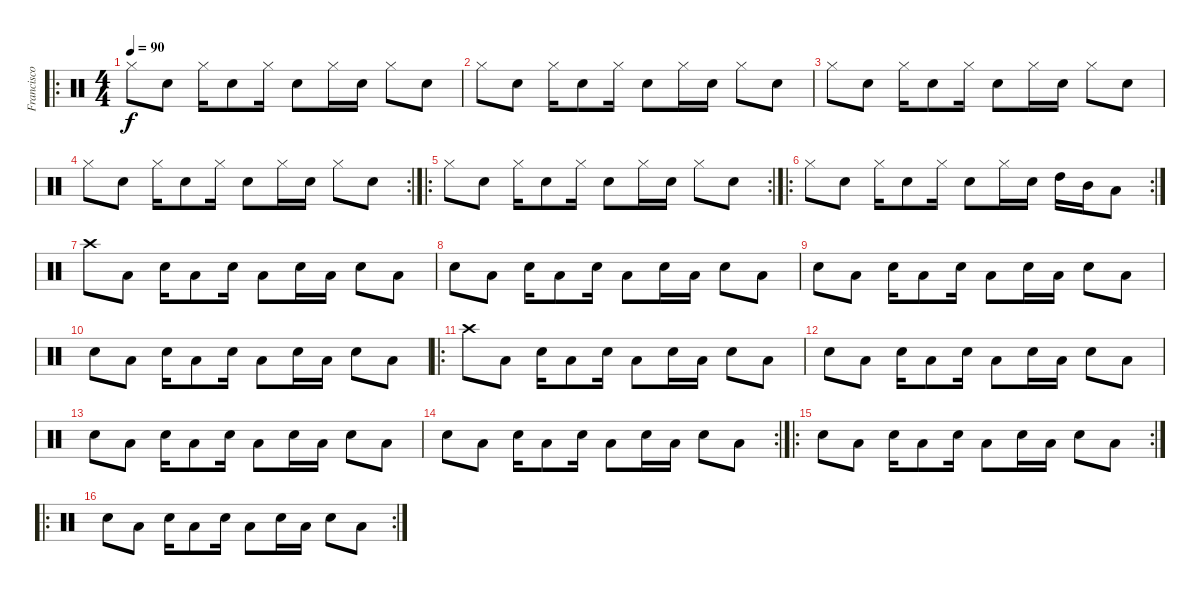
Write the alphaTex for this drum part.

\track ("Francisco (batería)" "Francisco ") {instrument percussion}
\staff {score}
\articulation defaults
\ro
\ts (4 4)
\tempo 90
\clef neutral
\ks c "Hi-Hat (closed)".8{dy f} "Hand Clap (hit)".8 "Hi-Hat (closed)".16 "Hand Clap (hit)".8 "Hi-Hat (closed)".16 "Hand Clap (hit)".8 "Hi-Hat (closed)".16 "Hand Clap (hit)".16 "Hi-Hat (closed)".8 "Hand Clap (hit)".8
|
"Hi-Hat (closed)".8 "Hand Clap (hit)".8 "Hi-Hat (closed)".16 "Hand Clap (hit)".8 "Hi-Hat (closed)".16 "Hand Clap (hit)".8 "Hi-Hat (closed)".16 "Hand Clap (hit)".16 "Hi-Hat (closed)".8 "Hand Clap (hit)".8 |
"Hi-Hat (closed)".8 "Hand Clap (hit)".8 "Hi-Hat (closed)".16 "Hand Clap (hit)".8 "Hi-Hat (closed)".16 "Hand Clap (hit)".8 "Hi-Hat (closed)".16 "Hand Clap (hit)".16 "Hi-Hat (closed)".8 "Hand Clap (hit)".8 |
\rc 2 "Hi-Hat (closed)".8 "Hand Clap (hit)".8 "Hi-Hat (closed)".16 "Hand Clap (hit)".8 "Hi-Hat (closed)".16 "Hand Clap (hit)".8 "Hi-Hat (closed)".16 "Hand Clap (hit)".16 "Hi-Hat (closed)".8 "Hand Clap (hit)".8
|
\ro
\rc 2 "Hi-Hat (closed)".8 "Hand Clap (hit)".8 "Hi-Hat (closed)".16 "Hand Clap (hit)".8 "Hi-Hat (closed)".16 "Hand Clap (hit)".8 "Hi-Hat (closed)".16 "Hand Clap (hit)".16 "Hi-Hat (closed)".8 "Hand Clap (hit)".8
|
\ro
\rc 2 "Hi-Hat (closed)".8 "Hand Clap (hit)".8 "Hi-Hat (closed)".16 "Hand Clap (hit)".8 "Hi-Hat (closed)".16 "Hand Clap (hit)".8 "Hi-Hat (closed)".16 "Hand Clap (hit)".16 "High Tom (hit)".16 "Mid Tom (hit)".16 "Low Tom (hit)".8
|
"Crash high (hit)".8 "Low Floor Tom (hit)".8 "Hand Clap (hit)".16 "Low Floor Tom (hit)".8 "Electric Snare (hit)".16 "Low Floor Tom (hit)".8 "Hand Clap (hit)".16 "Low Floor Tom (hit)".16 "Electric Snare (hit)".8 "Low Floor Tom (hit)".8 |
"Electric Snare (hit)".8 "Low Floor Tom (hit)".8 "Hand Clap (hit)".16 "Low Floor Tom (hit)".8 "Electric Snare (hit)".16 "Low Floor Tom (hit)".8 "Hand Clap (hit)".16 "Low Floor Tom (hit)".16 "Electric Snare (hit)".8 "Low Floor Tom (hit)".8 |
"Electric Snare (hit)".8 "Low Floor Tom (hit)".8 "Hand Clap (hit)".16 "Low Floor Tom (hit)".8 "Electric Snare (hit)".16 "Low Floor Tom (hit)".8 "Hand Clap (hit)".16 "Low Floor Tom (hit)".16 "Electric Snare (hit)".8 "Low Floor Tom (hit)".8 |
"Electric Snare (hit)".8 "Low Floor Tom (hit)".8 "Hand Clap (hit)".16 "Low Floor Tom (hit)".8 "Electric Snare (hit)".16 "Low Floor Tom (hit)".8 "Hand Clap (hit)".16 "Low Floor Tom (hit)".16 "Electric Snare (hit)".8 "Low Floor Tom (hit)".8 |
\ro "Crash high (hit)".8 "Low Floor Tom (hit)".8 "Hand Clap (hit)".16 "Low Floor Tom (hit)".8 "Electric Snare (hit)".16 "Low Floor Tom (hit)".8 "Hand Clap (hit)".16 "Low Floor Tom (hit)".16 "Electric Snare (hit)".8 "Low Floor Tom (hit)".8
|
"Electric Snare (hit)".8 "Low Floor Tom (hit)".8 "Hand Clap (hit)".16 "Low Floor Tom (hit)".8 "Electric Snare (hit)".16 "Low Floor Tom (hit)".8 "Hand Clap (hit)".16 "Low Floor Tom (hit)".16 "Electric Snare (hit)".8 "Low Floor Tom (hit)".8 |
"Electric Snare (hit)".8 "Low Floor Tom (hit)".8 "Hand Clap (hit)".16 "Low Floor Tom (hit)".8 "Electric Snare (hit)".16 "Low Floor Tom (hit)".8 "Hand Clap (hit)".16 "Low Floor Tom (hit)".16 "Electric Snare (hit)".8 "Low Floor Tom (hit)".8 |
\rc 2 "Electric Snare (hit)".8 "Low Floor Tom (hit)".8 "Hand Clap (hit)".16 "Low Floor Tom (hit)".8 "Electric Snare (hit)".16 "Low Floor Tom (hit)".8 "Hand Clap (hit)".16 "Low Floor Tom (hit)".16 "Electric Snare (hit)".8 "Low Floor Tom (hit)".8
|
\ro
\rc 2 "Electric Snare (hit)".8 "Low Floor Tom (hit)".8 "Hand Clap (hit)".16 "Low Floor Tom (hit)".8 "Electric Snare (hit)".16 "Low Floor Tom (hit)".8 "Hand Clap (hit)".16 "Low Floor Tom (hit)".16 "Electric Snare (hit)".8 "Low Floor Tom (hit)".8
|
\ro
\rc 2 "Electric Snare (hit)".8 "Low Floor Tom (hit)".8 "Hand Clap (hit)".16 "Low Floor Tom (hit)".8 "Electric Snare (hit)".16 "Low Floor Tom (hit)".8 "Hand Clap (hit)".16 "Low Floor Tom (hit)".16 "Electric Snare (hit)".8 "Low Floor Tom (hit)".8
